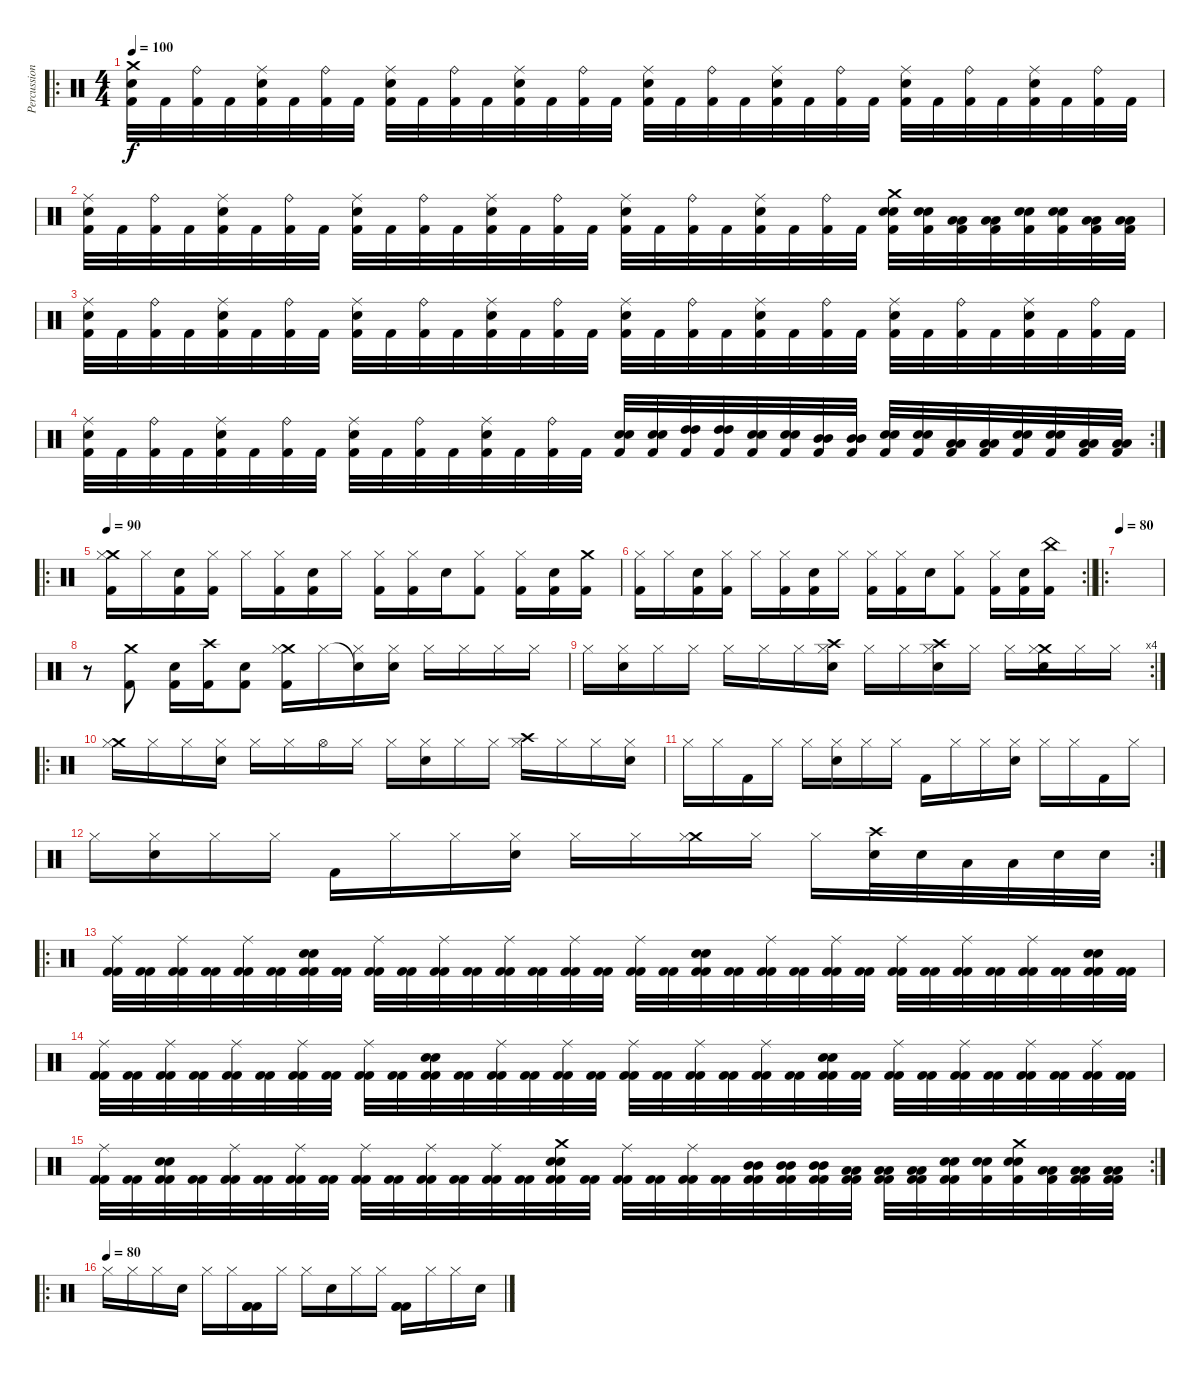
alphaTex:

\track ("Percussions" "Percussion") {instrument percussion}
\staff {score}
\articulation defaults
\ro
\ts (4 4)
\tempo 100
\clef neutral
\ks c
("Crash medium (hit)" "Kick (hit) 2" "Snare (hit) 2").32{dy f} "Kick (hit) 2".32 ("Kick (hit) 2" "Ride (bell)").32 "Kick (hit) 2".32 ("Kick (hit) 2" "Snare (hit) 2" "Ride (middle)").32 "Kick (hit) 2".32 ("Kick (hit) 2" "Ride (bell)").32 "Kick (hit) 2".32 ("Kick (hit) 2" "Snare (hit) 2" "Ride (middle)").32 "Kick (hit) 2".32 ("Kick (hit) 2" "Ride (bell)").32 "Kick (hit) 2".32 ("Kick (hit) 2" "Snare (hit) 2" "Ride (middle)").32 "Kick (hit) 2".32 ("Kick (hit) 2" "Ride (bell)").32 "Kick (hit) 2".32 ("Kick (hit) 2" "Snare (hit) 2" "Ride (middle)").32 "Kick (hit) 2".32 ("Kick (hit) 2" "Ride (bell)").32 "Kick (hit) 2".32 ("Kick (hit) 2" "Snare (hit) 2" "Ride (middle)").32 "Kick (hit) 2".32 ("Kick (hit) 2" "Ride (bell)").32 "Kick (hit) 2".32 ("Kick (hit) 2" "Snare (hit) 2" "Ride (middle)").32 "Kick (hit) 2".32 ("Kick (hit) 2" "Ride (bell)").32 "Kick (hit) 2".32 ("Kick (hit) 2" "Snare (hit) 2" "Ride (middle)").32 "Kick (hit) 2".32 ("Kick (hit) 2" "Ride (bell)").32 "Kick (hit) 2".32 |
("Kick (hit) 2" "Snare (hit) 2" "Ride (middle)").32 "Kick (hit) 2".32 ("Kick (hit) 2" "Ride (bell)").32 "Kick (hit) 2".32 ("Kick (hit) 2" "Snare (hit) 2" "Ride (middle)").32 "Kick (hit) 2".32 ("Kick (hit) 2" "Ride (bell)").32 "Kick (hit) 2".32 ("Kick (hit) 2" "Snare (hit) 2" "Ride (middle)").32 "Kick (hit) 2".32 ("Kick (hit) 2" "Ride (bell)").32 "Kick (hit) 2".32 ("Kick (hit) 2" "Snare (hit) 2" "Ride (middle)").32 "Kick (hit) 2".32 ("Kick (hit) 2" "Ride (bell)").32 "Kick (hit) 2".32 ("Kick (hit) 2" "Snare (hit) 2" "Ride (middle)").32 "Kick (hit) 2".32 ("Kick (hit) 2" "Ride (bell)").32 "Kick (hit) 2".32 ("Kick (hit) 2" "Snare (hit) 2" "Ride (middle)").32 "Kick (hit) 2".32 ("Kick (hit) 2" "Ride (bell)").32 "Kick (hit) 2".32 ("Crash medium (hit)" "Kick (hit) 2" "Snare (hit) 2" "Snare (hit) 2").32 ("Kick (hit) 2" "Snare (hit) 2" "Snare (hit) 2").32 ("Kick (hit) 2" "Low Tom (hit)" "Low Tom (hit)").32 ("Kick (hit) 2" "Low Tom (hit)" "Low Tom (hit)").32 ("Kick (hit) 2" "Snare (hit) 2" "Snare (hit) 2").32 ("Kick (hit) 2" "Snare (hit) 2" "Snare (hit) 2").32 ("Kick (hit) 2" "Low Floor Tom (hit)" "Low Floor Tom (hit)").32 ("Kick (hit) 2" "Low Floor Tom (hit)" "Low Floor Tom (hit)").32 |
("Kick (hit) 2" "Snare (hit) 2" "Ride (middle)").32 "Kick (hit) 2".32 ("Kick (hit) 2" "Ride (bell)").32 "Kick (hit) 2".32 ("Kick (hit) 2" "Snare (hit) 2" "Ride (middle)").32 "Kick (hit) 2".32 ("Kick (hit) 2" "Ride (bell)").32 "Kick (hit) 2".32 ("Kick (hit) 2" "Snare (hit) 2" "Ride (middle)").32 "Kick (hit) 2".32 ("Kick (hit) 2" "Ride (bell)").32 "Kick (hit) 2".32 ("Kick (hit) 2" "Snare (hit) 2" "Ride (middle)").32 "Kick (hit) 2".32 ("Kick (hit) 2" "Ride (bell)").32 "Kick (hit) 2".32 ("Kick (hit) 2" "Snare (hit) 2" "Ride (middle)").32 "Kick (hit) 2".32 ("Kick (hit) 2" "Ride (bell)").32 "Kick (hit) 2".32 ("Kick (hit) 2" "Snare (hit) 2" "Ride (middle)").32 "Kick (hit) 2".32 ("Kick (hit) 2" "Ride (bell)").32 "Kick (hit) 2".32 ("Kick (hit) 2" "Snare (hit) 2" "Ride (middle)").32 "Kick (hit) 2".32 ("Kick (hit) 2" "Ride (bell)").32 "Kick (hit) 2".32 ("Kick (hit) 2" "Snare (hit) 2" "Ride (middle)").32 "Kick (hit) 2".32 ("Kick (hit) 2" "Ride (bell)").32 "Kick (hit) 2".32 |
\rc 2
("Kick (hit) 2" "Snare (hit) 2" "Ride (middle)").32 "Kick (hit) 2".32 ("Kick (hit) 2" "Ride (bell)").32 "Kick (hit) 2".32 ("Kick (hit) 2" "Snare (hit) 2" "Ride (middle)").32 "Kick (hit) 2".32 ("Kick (hit) 2" "Ride (bell)").32 "Kick (hit) 2".32 ("Kick (hit) 2" "Snare (hit) 2" "Ride (middle)").32 "Kick (hit) 2".32 ("Kick (hit) 2" "Ride (bell)").32 "Kick (hit) 2".32 ("Kick (hit) 2" "Snare (hit) 2" "Ride (middle)").32 "Kick (hit) 2".32 ("Kick (hit) 2" "Ride (bell)").32 "Kick (hit) 2".32 ("Kick (hit) 2" "Snare (hit) 2" "Snare (hit) 2").32 ("Kick (hit) 2" "Snare (hit) 2" "Snare (hit) 2").32 ("Kick (hit) 2" "High Tom (hit)" "High Tom (hit)").32 ("Kick (hit) 2" "High Tom (hit)" "High Tom (hit)").32 ("Kick (hit) 2" "Snare (hit) 2" "Snare (hit) 2").32 ("Kick (hit) 2" "Snare (hit) 2" "Snare (hit) 2").32 ("Kick (hit) 2" "Mid Tom (hit)" "Mid Tom (hit)").32 ("Kick (hit) 2" "Mid Tom (hit)" "Mid Tom (hit)").32 ("Kick (hit) 2" "Snare (hit) 2" "Snare (hit) 2").32 ("Kick (hit) 2" "Snare (hit) 2" "Snare (hit) 2").32 ("Kick (hit) 2" "Low Tom (hit)" "Low Tom (hit)").32 ("Kick (hit) 2" "Low Tom (hit)" "Low Tom (hit)").32 ("Kick (hit) 2" "Snare (hit) 2" "Snare (hit) 2").32 ("Kick (hit) 2" "Snare (hit) 2" "Snare (hit) 2").32 ("Kick (hit) 2" "Low Floor Tom (hit)" "Low Floor Tom (hit)").32 ("Kick (hit) 2" "Low Floor Tom (hit)" "Low Floor Tom (hit)").32 |
\ro
\tempo 90
("Crash medium (hit)" "Hi-Hat (closed)" "Kick (hit) 2").16 "Hi-Hat (closed)".16 ("Snare (hit) 2" "Kick (hit) 2").16 ("Hi-Hat (closed)" "Kick (hit) 2").16 "Hi-Hat (closed)".16 ("Hi-Hat (closed)" "Kick (hit) 2").16 ("Snare (hit) 2" "Kick (hit) 2").16 "Hi-Hat (closed)".16 ("Hi-Hat (closed)" "Kick (hit) 2").16 ("Hi-Hat (closed)" "Kick (hit) 2").16 "Snare (hit) 2".16 ("Hi-Hat (closed)" "Kick (hit) 2").8 ("Hi-Hat (closed)" "Kick (hit) 2").16 ("Snare (hit) 2" "Kick (hit) 2").16 ("Crash medium (hit)" "Kick (hit) 2").16 |
\rc 2
\barLineRight lightlight
("Hi-Hat (closed)" "Kick (hit) 2").16 "Hi-Hat (closed)".16 ("Snare (hit) 2" "Kick (hit) 2").16 ("Hi-Hat (closed)" "Kick (hit) 2").16 "Hi-Hat (closed)".16 ("Hi-Hat (closed)" "Kick (hit) 2").16 ("Snare (hit) 2" "Kick (hit) 2").16 "Hi-Hat (closed)".16 ("Hi-Hat (closed)" "Kick (hit) 2").16 ("Hi-Hat (closed)" "Kick (hit) 2").16 "Snare (hit) 2".16 ("Hi-Hat (closed)" "Kick (hit) 2").8 ("Hi-Hat (closed)" "Kick (hit) 2").16 ("Snare (hit) 2" "Kick (hit) 2").16 ("China (hit)" "Kick (hit) 2").16 |
\ro
\tempo 80
|
r.8 ("Crash medium (hit)" "Kick (hit) 2").8 ("Snare (hit) 2" "Kick (hit) 2").16 ("Crash high (hit)" "Kick (hit) 2").16 ("Snare (hit) 2" "Kick (hit) 2").8 ("Crash medium (hit)" "Hi-Hat (closed)" "Kick (hit) 2").16 "Hi-Hat (closed)".16 ("Snare (hit)"{t} "Hi-Hat (closed)").16 ("Snare (hit) 2" "Hi-Hat (closed)").16 "Hi-Hat (closed)".16 "Hi-Hat (closed)".16 "Hi-Hat (closed)".16 "Hi-Hat (closed)".16 |
\rc 4 "Hi-Hat (closed)".16
("Snare (hit) 2" "Hi-Hat (closed)").16 "Hi-Hat (closed)".16 "Hi-Hat (closed)".16 "Hi-Hat (closed)".16 "Hi-Hat (closed)".16 "Hi-Hat (closed)".16 ("Crash high (hit)" "Snare (hit) 2" "Hi-Hat (closed)").16 "Hi-Hat (closed)".16 "Hi-Hat (closed)".16 ("Crash high (hit)" "Snare (hit) 2" "Hi-Hat (closed)").16 "Hi-Hat (closed)".16 "Hi-Hat (closed)".16 ("Crash medium (hit)" "Snare (hit) 2" "Hi-Hat (closed)").16 "Hi-Hat (closed)".16 "Hi-Hat (closed)".16 |
\ro
("Crash medium (hit)" "Hi-Hat (closed)").16 "Hi-Hat (closed)".16 "Hi-Hat (closed)".16 ("Snare (hit) 2" "Hi-Hat (closed)").16 "Hi-Hat (closed)".16 "Hi-Hat (closed)".16 "Hi-Hat (open)".16 "Hi-Hat (closed)".16 "Hi-Hat (closed)".16 ("Snare (hit) 2" "Hi-Hat (closed)").16 "Hi-Hat (closed)".16 "Hi-Hat (closed)".16 ("Crash high (hit)" "Hi-Hat (closed)").16 "Hi-Hat (closed)".16 "Hi-Hat (closed)".16 ("Snare (hit) 2" "Hi-Hat (closed)").16 |
"Hi-Hat (closed)".16 "Hi-Hat (closed)".16 "Kick (hit) 2".16 "Hi-Hat (closed)".16 "Hi-Hat (closed)".16 ("Snare (hit) 2" "Hi-Hat (closed)").16 "Hi-Hat (closed)".16 "Hi-Hat (closed)".16 "Kick (hit) 2".16 "Hi-Hat (closed)".16 "Hi-Hat (closed)".16 ("Snare (hit) 2" "Hi-Hat (closed)").16 "Hi-Hat (closed)".16 "Hi-Hat (closed)".16 "Kick (hit) 2".16 "Hi-Hat (closed)".16 |
\rc 2 "Hi-Hat (closed)".16
("Snare (hit) 2" "Hi-Hat (closed)").16 "Hi-Hat (closed)".16 "Hi-Hat (closed)".16 "Kick (hit) 2".16 "Hi-Hat (closed)".16 "Hi-Hat (closed)".16 ("Snare (hit) 2" "Hi-Hat (closed)").16 "Hi-Hat (closed)".16 "Hi-Hat (closed)".16 ("Crash medium (hit)" "Hi-Hat (closed)").16 "Hi-Hat (closed)".16 "Hi-Hat (closed)".16 ("Crash high (hit)" "Snare (hit) 2").32 "Snare (hit) 2".32 "Low Tom (hit)".32 "Low Tom (hit)".32 "Snare (hit) 2".32 "Snare (hit) 2".32 |
\ro
("Kick (hit) 2" "Kick (hit) 2" "Ride (middle)").32 ("Kick (hit) 2" "Kick (hit) 2").32 ("Kick (hit) 2" "Kick (hit) 2" "Ride (middle)").32 ("Kick (hit) 2" "Kick (hit) 2").32 ("Kick (hit) 2" "Kick (hit) 2" "Ride (middle)").32 ("Kick (hit) 2" "Kick (hit) 2").32 ("Kick (hit) 2" "Kick (hit) 2" "Snare (hit) 2" "Snare (hit) 2").32 ("Kick (hit) 2" "Kick (hit) 2").32 ("Kick (hit) 2" "Kick (hit) 2" "Ride (middle)").32 ("Kick (hit) 2" "Kick (hit) 2").32 ("Kick (hit) 2" "Kick (hit) 2" "Ride (middle)").32 ("Kick (hit) 2" "Kick (hit) 2").32 ("Kick (hit) 2" "Kick (hit) 2" "Ride (middle)").32 ("Kick (hit) 2" "Kick (hit) 2").32 ("Kick (hit) 2" "Kick (hit) 2" "Ride (middle)").32 ("Kick (hit) 2" "Kick (hit) 2").32 ("Kick (hit) 2" "Kick (hit) 2" "Ride (middle)").32 ("Kick (hit) 2" "Kick (hit) 2").32 ("Kick (hit) 2" "Kick (hit) 2" "Snare (hit) 2" "Snare (hit) 2").32 ("Kick (hit) 2" "Kick (hit) 2").32 ("Kick (hit) 2" "Kick (hit) 2" "Ride (middle)").32 ("Kick (hit) 2" "Kick (hit) 2").32 ("Kick (hit) 2" "Kick (hit) 2" "Ride (middle)").32 ("Kick (hit) 2" "Kick (hit) 2").32 ("Kick (hit) 2" "Kick (hit) 2" "Ride (middle)").32 ("Kick (hit) 2" "Kick (hit) 2").32 ("Kick (hit) 2" "Kick (hit) 2" "Ride (middle)").32 ("Kick (hit) 2" "Kick (hit) 2").32 ("Kick (hit) 2" "Kick (hit) 2" "Ride (middle)").32 ("Kick (hit) 2" "Kick (hit) 2").32 ("Kick (hit) 2" "Kick (hit) 2" "Snare (hit) 2" "Snare (hit) 2").32 ("Kick (hit) 2" "Kick (hit) 2").32 |
("Kick (hit) 2" "Kick (hit) 2" "Ride (middle)").32 ("Kick (hit) 2" "Kick (hit) 2").32 ("Kick (hit) 2" "Kick (hit) 2" "Ride (middle)").32 ("Kick (hit) 2" "Kick (hit) 2").32 ("Kick (hit) 2" "Kick (hit) 2" "Ride (middle)").32 ("Kick (hit) 2" "Kick (hit) 2").32 ("Kick (hit) 2" "Kick (hit) 2" "Ride (middle)").32 ("Kick (hit) 2" "Kick (hit) 2").32 ("Kick (hit) 2" "Kick (hit) 2" "Ride (middle)").32 ("Kick (hit) 2" "Kick (hit) 2").32 ("Kick (hit) 2" "Kick (hit) 2" "Snare (hit) 2" "Snare (hit) 2").32 ("Kick (hit) 2" "Kick (hit) 2").32 ("Kick (hit) 2" "Kick (hit) 2" "Ride (middle)").32 ("Kick (hit) 2" "Kick (hit) 2").32 ("Kick (hit) 2" "Kick (hit) 2" "Ride (middle)").32 ("Kick (hit) 2" "Kick (hit) 2").32 ("Kick (hit) 2" "Kick (hit) 2" "Ride (middle)").32 ("Kick (hit) 2" "Kick (hit) 2").32 ("Kick (hit) 2" "Kick (hit) 2" "Ride (middle)").32 ("Kick (hit) 2" "Kick (hit) 2").32 ("Kick (hit) 2" "Kick (hit) 2" "Ride (middle)").32 ("Kick (hit) 2" "Kick (hit) 2").32 ("Kick (hit) 2" "Kick (hit) 2" "Snare (hit) 2" "Snare (hit) 2").32 ("Kick (hit) 2" "Kick (hit) 2").32 ("Kick (hit) 2" "Kick (hit) 2" "Ride (middle)").32 ("Kick (hit) 2" "Kick (hit) 2").32 ("Kick (hit) 2" "Kick (hit) 2" "Ride (middle)").32 ("Kick (hit) 2" "Kick (hit) 2").32 ("Kick (hit) 2" "Kick (hit) 2" "Ride (middle)").32 ("Kick (hit) 2" "Kick (hit) 2").32 ("Kick (hit) 2" "Kick (hit) 2" "Ride (middle)").32 ("Kick (hit) 2" "Kick (hit) 2").32 |
\rc 2
("Kick (hit) 2" "Kick (hit) 2" "Ride (middle)").32 ("Kick (hit) 2" "Kick (hit) 2").32 ("Kick (hit) 2" "Kick (hit) 2" "Snare (hit) 2" "Snare (hit) 2").32 ("Kick (hit) 2" "Kick (hit) 2").32 ("Kick (hit) 2" "Kick (hit) 2" "Ride (middle)").32 ("Kick (hit) 2" "Kick (hit) 2").32 ("Kick (hit) 2" "Kick (hit) 2" "Ride (middle)").32 ("Kick (hit) 2" "Kick (hit) 2").32 ("Kick (hit) 2" "Kick (hit) 2" "Ride (middle)").32 ("Kick (hit) 2" "Kick (hit) 2").32 ("Kick (hit) 2" "Kick (hit) 2" "Ride (middle)").32 ("Kick (hit) 2" "Kick (hit) 2").32 ("Kick (hit) 2" "Kick (hit) 2" "Ride (middle)").32 ("Kick (hit) 2" "Kick (hit) 2").32 ("Crash medium (hit)" "Kick (hit) 2" "Kick (hit) 2" "Snare (hit) 2" "Snare (hit) 2").32 ("Kick (hit) 2" "Kick (hit) 2").32 ("Kick (hit) 2" "Kick (hit) 2" "Ride (middle)").32 ("Kick (hit) 2" "Kick (hit) 2").32 ("Kick (hit) 2" "Kick (hit) 2" "Ride (middle)").32 ("Kick (hit) 2" "Kick (hit) 2").32 ("Kick (hit) 2" "Kick (hit) 2" "Mid Tom (hit)" "Mid Tom (hit)").32 ("Kick (hit) 2" "Kick (hit) 2" "Mid Tom (hit)" "Mid Tom (hit)").32 ("Kick (hit) 2" "Kick (hit) 2" "Mid Tom (hit)" "Mid Tom (hit)").32 ("Kick (hit) 2" "Kick (hit) 2" "Low Tom (hit)" "Low Tom (hit)").32 ("Kick (hit) 2" "Kick (hit) 2" "Low Tom (hit)" "Low Tom (hit)").32 ("Kick (hit) 2" "Kick (hit) 2" "Low Tom (hit)" "Low Tom (hit)").32 ("Kick (hit) 2" "Kick (hit) 2" "Snare (hit) 2" "Snare (hit) 2").32 ("Kick (hit) 2" "Snare (hit) 2" "Snare (hit) 2").32 ("Kick (hit) 2" "Crash medium (hit)" "Snare (hit) 2" "Snare (hit) 2").32 ("Kick (hit) 2" "Low Floor Tom (hit)" "Low Floor Tom (hit)").32 ("Kick (hit) 2" "Kick (hit) 2" "Low Floor Tom (hit)" "Low Floor Tom (hit)").32 ("Kick (hit) 2" "Kick (hit) 2" "Low Floor Tom (hit)" "Low Floor Tom (hit)").32 |
\ro
\tempo (80)
"Hi-Hat (closed)".16 "Hi-Hat (closed)".16 "Hi-Hat (closed)".16 "Snare (hit) 2".16 "Hi-Hat (closed)".16 "Hi-Hat (closed)".16 ("Kick (hit) 2" "Kick (hit) 2" "Kick (hit) 2").16 "Hi-Hat (closed)".16 "Hi-Hat (closed)".16 "Snare (hit) 2".16 "Hi-Hat (closed)".16 "Hi-Hat (closed)".16 ("Kick (hit) 2" "Kick (hit) 2" "Kick (hit) 2").16 "Hi-Hat (closed)".16 "Hi-Hat (closed)".16 "Snare (hit) 2".16
